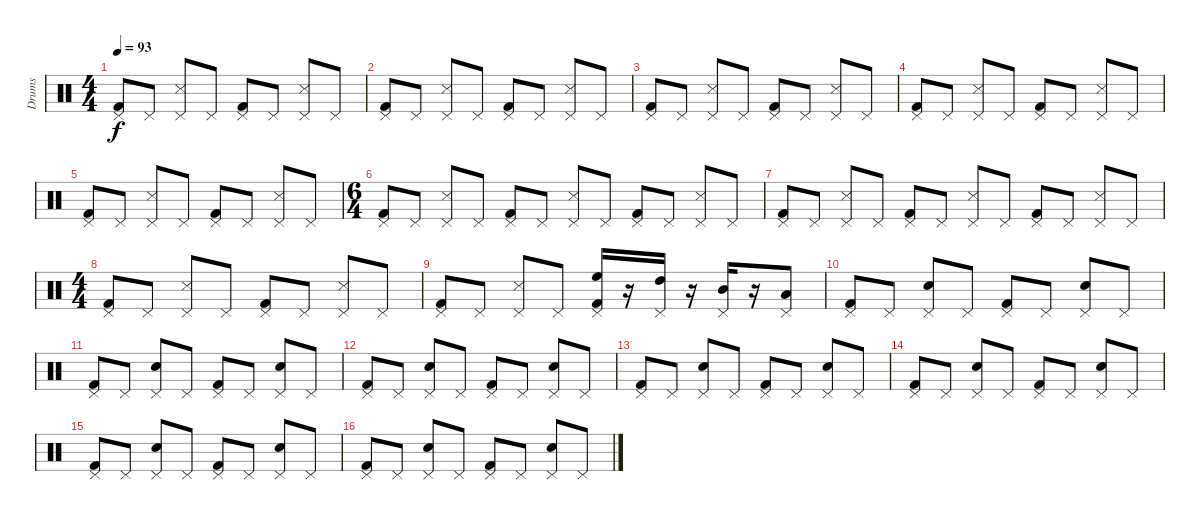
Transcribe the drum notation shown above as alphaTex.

\track ("Drums" "Drums") {instrument percussion}
\staff {score}
\articulation defaults
\ts (4 4)
\tempo 93
\clef neutral
\ks c
("Pedal Hi-Hat (hit)" "Kick (hit) 2").8{dy f} "Pedal Hi-Hat (hit)".8 ("Pedal Hi-Hat (hit)" "Snare (side stick) 3").8 "Pedal Hi-Hat (hit)".8 ("Pedal Hi-Hat (hit)" "Kick (hit) 2").8 "Pedal Hi-Hat (hit)".8 ("Pedal Hi-Hat (hit)" "Snare (side stick) 3").8 "Pedal Hi-Hat (hit)".8 |
("Pedal Hi-Hat (hit)" "Kick (hit) 2").8 "Pedal Hi-Hat (hit)".8 ("Pedal Hi-Hat (hit)" "Snare (side stick) 3").8 "Pedal Hi-Hat (hit)".8 ("Pedal Hi-Hat (hit)" "Kick (hit) 2").8 "Pedal Hi-Hat (hit)".8 ("Pedal Hi-Hat (hit)" "Snare (side stick) 3").8 "Pedal Hi-Hat (hit)".8 |
("Pedal Hi-Hat (hit)" "Kick (hit) 2").8 "Pedal Hi-Hat (hit)".8 ("Pedal Hi-Hat (hit)" "Snare (side stick) 3").8 "Pedal Hi-Hat (hit)".8 ("Pedal Hi-Hat (hit)" "Kick (hit) 2").8 "Pedal Hi-Hat (hit)".8 ("Pedal Hi-Hat (hit)" "Snare (side stick) 3").8 "Pedal Hi-Hat (hit)".8 |
("Pedal Hi-Hat (hit)" "Kick (hit) 2").8 "Pedal Hi-Hat (hit)".8 ("Pedal Hi-Hat (hit)" "Snare (side stick) 3").8 "Pedal Hi-Hat (hit)".8 ("Pedal Hi-Hat (hit)" "Kick (hit) 2").8 "Pedal Hi-Hat (hit)".8 ("Pedal Hi-Hat (hit)" "Snare (side stick) 3").8 "Pedal Hi-Hat (hit)".8 |
("Pedal Hi-Hat (hit)" "Kick (hit) 2").8 "Pedal Hi-Hat (hit)".8 ("Pedal Hi-Hat (hit)" "Snare (side stick) 3").8 "Pedal Hi-Hat (hit)".8 ("Pedal Hi-Hat (hit)" "Kick (hit) 2").8 "Pedal Hi-Hat (hit)".8 ("Pedal Hi-Hat (hit)" "Snare (side stick) 3").8 "Pedal Hi-Hat (hit)".8 |
\ts (6 4)
("Pedal Hi-Hat (hit)" "Kick (hit) 2").8 "Pedal Hi-Hat (hit)".8 ("Pedal Hi-Hat (hit)" "Snare (side stick) 3").8 "Pedal Hi-Hat (hit)".8 ("Pedal Hi-Hat (hit)" "Kick (hit) 2").8 "Pedal Hi-Hat (hit)".8 ("Pedal Hi-Hat (hit)" "Snare (side stick) 3").8 "Pedal Hi-Hat (hit)".8 ("Pedal Hi-Hat (hit)" "Kick (hit) 2").8 "Pedal Hi-Hat (hit)".8 ("Pedal Hi-Hat (hit)" "Snare (side stick) 3").8 "Pedal Hi-Hat (hit)".8 |
("Pedal Hi-Hat (hit)" "Kick (hit) 2").8 "Pedal Hi-Hat (hit)".8 ("Pedal Hi-Hat (hit)" "Snare (side stick) 3").8 "Pedal Hi-Hat (hit)".8 ("Pedal Hi-Hat (hit)" "Kick (hit) 2").8 "Pedal Hi-Hat (hit)".8 ("Pedal Hi-Hat (hit)" "Snare (side stick) 3").8 "Pedal Hi-Hat (hit)".8 ("Pedal Hi-Hat (hit)" "Kick (hit) 2").8 "Pedal Hi-Hat (hit)".8 ("Pedal Hi-Hat (hit)" "Snare (side stick) 3").8 "Pedal Hi-Hat (hit)".8 |
\ts (4 4)
("Pedal Hi-Hat (hit)" "Kick (hit) 2").8 "Pedal Hi-Hat (hit)".8 ("Pedal Hi-Hat (hit)" "Snare (side stick) 3").8 "Pedal Hi-Hat (hit)".8 ("Pedal Hi-Hat (hit)" "Kick (hit) 2").8 "Pedal Hi-Hat (hit)".8 ("Pedal Hi-Hat (hit)" "Snare (side stick) 3").8 "Pedal Hi-Hat (hit)".8 |
("Pedal Hi-Hat (hit)" "Kick (hit) 2").8 "Pedal Hi-Hat (hit)".8 ("Pedal Hi-Hat (hit)" "Snare (side stick) 3").8 "Pedal Hi-Hat (hit)".8 ("Pedal Hi-Hat (hit)" "High Floor Tom (hit)" "Kick (hit) 2").16 r.16 ("Pedal Hi-Hat (hit)" "High Tom (hit)").16 r.16 ("Pedal Hi-Hat (hit)" "Mid Tom (hit)").16 r.16 ("Pedal Hi-Hat (hit)" "Low Tom (hit)").8 |
("Pedal Hi-Hat (hit)" "Kick (hit) 2").8 "Pedal Hi-Hat (hit)".8 ("Pedal Hi-Hat (hit)" "Electric Snare (hit)").8 "Pedal Hi-Hat (hit)".8 ("Pedal Hi-Hat (hit)" "Kick (hit) 2").8 "Pedal Hi-Hat (hit)".8 ("Pedal Hi-Hat (hit)" "Electric Snare (hit)").8 "Pedal Hi-Hat (hit)".8 |
("Pedal Hi-Hat (hit)" "Kick (hit) 2").8 "Pedal Hi-Hat (hit)".8 ("Pedal Hi-Hat (hit)" "Electric Snare (hit)").8 "Pedal Hi-Hat (hit)".8 ("Pedal Hi-Hat (hit)" "Kick (hit) 2").8 "Pedal Hi-Hat (hit)".8 ("Pedal Hi-Hat (hit)" "Electric Snare (hit)").8 "Pedal Hi-Hat (hit)".8 |
("Pedal Hi-Hat (hit)" "Kick (hit) 2").8 "Pedal Hi-Hat (hit)".8 ("Pedal Hi-Hat (hit)" "Electric Snare (hit)").8 "Pedal Hi-Hat (hit)".8 ("Pedal Hi-Hat (hit)" "Kick (hit) 2").8 "Pedal Hi-Hat (hit)".8 ("Pedal Hi-Hat (hit)" "Electric Snare (hit)").8 "Pedal Hi-Hat (hit)".8 |
("Pedal Hi-Hat (hit)" "Kick (hit) 2").8 "Pedal Hi-Hat (hit)".8 ("Pedal Hi-Hat (hit)" "Electric Snare (hit)").8 "Pedal Hi-Hat (hit)".8 ("Pedal Hi-Hat (hit)" "Kick (hit) 2").8 "Pedal Hi-Hat (hit)".8 ("Pedal Hi-Hat (hit)" "Electric Snare (hit)").8 "Pedal Hi-Hat (hit)".8 |
("Pedal Hi-Hat (hit)" "Kick (hit) 2").8 "Pedal Hi-Hat (hit)".8 ("Pedal Hi-Hat (hit)" "Electric Snare (hit)").8 "Pedal Hi-Hat (hit)".8 ("Pedal Hi-Hat (hit)" "Kick (hit) 2").8 "Pedal Hi-Hat (hit)".8 ("Pedal Hi-Hat (hit)" "Electric Snare (hit)").8 "Pedal Hi-Hat (hit)".8 |
("Pedal Hi-Hat (hit)" "Kick (hit) 2").8 "Pedal Hi-Hat (hit)".8 ("Pedal Hi-Hat (hit)" "Electric Snare (hit)").8 "Pedal Hi-Hat (hit)".8 ("Pedal Hi-Hat (hit)" "Kick (hit) 2").8 "Pedal Hi-Hat (hit)".8 ("Pedal Hi-Hat (hit)" "Electric Snare (hit)").8 "Pedal Hi-Hat (hit)".8 |
("Pedal Hi-Hat (hit)" "Kick (hit) 2").8 "Pedal Hi-Hat (hit)".8 ("Pedal Hi-Hat (hit)" "Electric Snare (hit)").8 "Pedal Hi-Hat (hit)".8 ("Pedal Hi-Hat (hit)" "Kick (hit) 2").8 "Pedal Hi-Hat (hit)".8 ("Pedal Hi-Hat (hit)" "Electric Snare (hit)").8 "Pedal Hi-Hat (hit)".8
